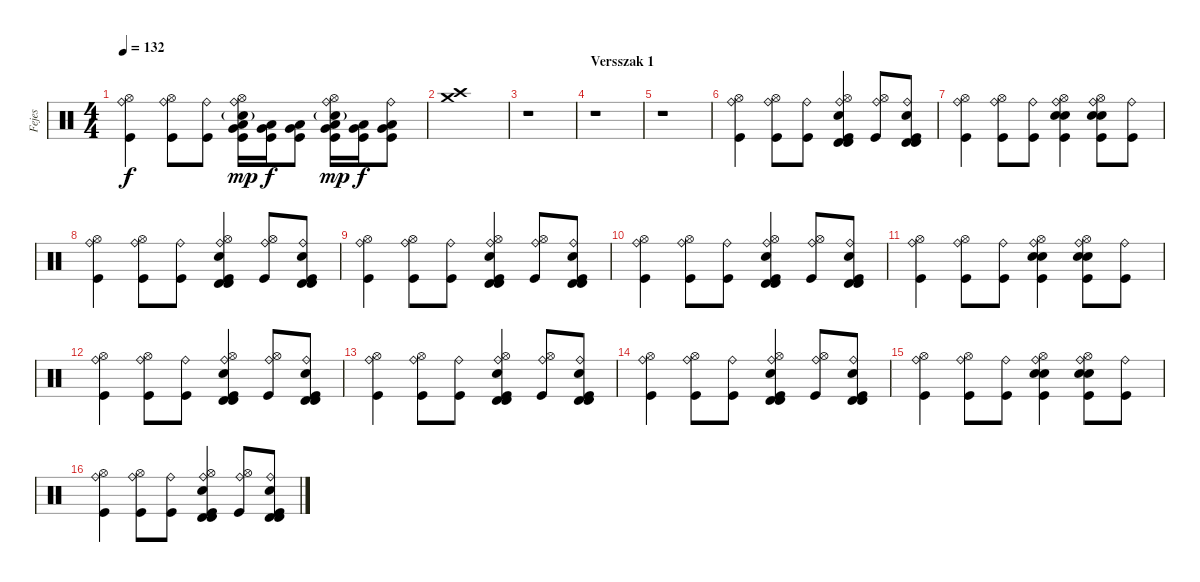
\track ("Fejes" "Fejes") {instrument percussion}
\staff {score}
\articulation defaults
\ts (4 4)
\tempo 132
\clef neutral
\ks c
("Ride (bell)" "Hi-Hat (open)" "Kick (hit)").4{dy f} ("Ride (bell)" "Hi-Hat (open)" "Kick (hit)").8 ("Ride (bell)" "Kick (hit)").8 ("Ride (bell)" "Hi-Hat (open)" "Snare (hit) 2"{g} "Low Floor Tom (hit)" "Very Low Tom (hit)" "Kick (hit)").16{dy mp} ("Low Floor Tom (hit)" "Very Low Tom (hit)" "Kick (hit)").16{dy f} ("Low Floor Tom (hit)" "Very Low Tom (hit)" "Kick (hit)").8 ("Ride (bell)" "Hi-Hat (open)" "Snare (hit) 2"{g} "Low Floor Tom (hit)" "Very Low Tom (hit)" "Kick (hit)").16{dy mp} ("Low Floor Tom (hit)" "Very Low Tom (hit)" "Kick (hit)").16{dy f} ("Ride (bell)" "Low Floor Tom (hit)" "Very Low Tom (hit)" "Kick (hit)").8 |
("Crash high (hit)" "Crash medium (hit)").1 |
r.1 |
\section ("" "Versszak 1")
r.1 |
r.1 |
("Ride (bell)" "Hi-Hat (open)" "Kick (hit)").4 ("Ride (bell)" "Hi-Hat (open)" "Kick (hit)").8 ("Ride (bell)" "Kick (hit)").8 ("Ride (bell)" "Hi-Hat (open)" "Snare (hit) 2" "Timbale high (hit)" "Timbale high (hit)" "Kick (hit)").4 ("Ride (bell)" "Hi-Hat (open)" "Kick (hit)").8 ("Ride (bell)" "Snare (hit) 2" "Timbale high (hit)" "Timbale high (hit)" "Kick (hit)").8 |
("Ride (bell)" "Hi-Hat (open)" "Kick (hit)").4 ("Ride (bell)" "Hi-Hat (open)" "Kick (hit)").8 ("Ride (bell)" "Kick (hit)").8 ("Ride (bell)" "Hi-Hat (open)" "Snare (hit) 2" "Snare (hit) 2" "Kick (hit)").4 ("Ride (bell)" "Hi-Hat (open)" "Snare (hit) 2" "Snare (hit) 2" "Kick (hit)").8 ("Ride (bell)" "Kick (hit)").8 |
("Ride (bell)" "Hi-Hat (open)" "Kick (hit)").4 ("Ride (bell)" "Hi-Hat (open)" "Kick (hit)").8 ("Ride (bell)" "Kick (hit)").8 ("Ride (bell)" "Hi-Hat (open)" "Snare (hit) 2" "Timbale high (hit)" "Timbale high (hit)" "Kick (hit)").4 ("Ride (bell)" "Hi-Hat (open)" "Kick (hit)").8 ("Ride (bell)" "Snare (hit) 2" "Timbale high (hit)" "Timbale high (hit)" "Kick (hit)").8 |
("Ride (bell)" "Hi-Hat (open)" "Kick (hit)").4 ("Ride (bell)" "Hi-Hat (open)" "Kick (hit)").8 ("Ride (bell)" "Kick (hit)").8 ("Ride (bell)" "Hi-Hat (open)" "Snare (hit) 2" "Timbale high (hit)" "Timbale high (hit)" "Kick (hit)").4 ("Ride (bell)" "Hi-Hat (open)" "Kick (hit)").8 ("Ride (bell)" "Snare (hit) 2" "Timbale high (hit)" "Timbale high (hit)" "Kick (hit)").8 |
("Ride (bell)" "Hi-Hat (open)" "Kick (hit)").4 ("Ride (bell)" "Hi-Hat (open)" "Kick (hit)").8 ("Ride (bell)" "Kick (hit)").8 ("Ride (bell)" "Hi-Hat (open)" "Snare (hit) 2" "Timbale high (hit)" "Timbale high (hit)" "Kick (hit)").4 ("Ride (bell)" "Hi-Hat (open)" "Kick (hit)").8 ("Ride (bell)" "Snare (hit) 2" "Timbale high (hit)" "Timbale high (hit)" "Kick (hit)").8 |
("Ride (bell)" "Hi-Hat (open)" "Kick (hit)").4 ("Ride (bell)" "Hi-Hat (open)" "Kick (hit)").8 ("Ride (bell)" "Kick (hit)").8 ("Ride (bell)" "Hi-Hat (open)" "Snare (hit) 2" "Snare (hit) 2" "Kick (hit)").4 ("Ride (bell)" "Hi-Hat (open)" "Snare (hit) 2" "Snare (hit) 2" "Kick (hit)").8 ("Ride (bell)" "Kick (hit)").8 |
("Ride (bell)" "Hi-Hat (open)" "Kick (hit)").4 ("Ride (bell)" "Hi-Hat (open)" "Kick (hit)").8 ("Ride (bell)" "Kick (hit)").8 ("Ride (bell)" "Hi-Hat (open)" "Snare (hit) 2" "Timbale high (hit)" "Timbale high (hit)" "Kick (hit)").4 ("Ride (bell)" "Hi-Hat (open)" "Kick (hit)").8 ("Ride (bell)" "Snare (hit) 2" "Timbale high (hit)" "Timbale high (hit)" "Kick (hit)").8 |
("Ride (bell)" "Hi-Hat (open)" "Kick (hit)").4 ("Ride (bell)" "Hi-Hat (open)" "Kick (hit)").8 ("Ride (bell)" "Kick (hit)").8 ("Ride (bell)" "Hi-Hat (open)" "Snare (hit) 2" "Timbale high (hit)" "Timbale high (hit)" "Kick (hit)").4 ("Ride (bell)" "Hi-Hat (open)" "Kick (hit)").8 ("Ride (bell)" "Snare (hit) 2" "Timbale high (hit)" "Timbale high (hit)" "Kick (hit)").8 |
("Ride (bell)" "Hi-Hat (open)" "Kick (hit)").4 ("Ride (bell)" "Hi-Hat (open)" "Kick (hit)").8 ("Ride (bell)" "Kick (hit)").8 ("Ride (bell)" "Hi-Hat (open)" "Snare (hit) 2" "Timbale high (hit)" "Timbale high (hit)" "Kick (hit)").4 ("Ride (bell)" "Hi-Hat (open)" "Kick (hit)").8 ("Ride (bell)" "Snare (hit) 2" "Timbale high (hit)" "Timbale high (hit)" "Kick (hit)").8 |
("Ride (bell)" "Hi-Hat (open)" "Kick (hit)").4 ("Ride (bell)" "Hi-Hat (open)" "Kick (hit)").8 ("Ride (bell)" "Kick (hit)").8 ("Ride (bell)" "Hi-Hat (open)" "Snare (hit) 2" "Snare (hit) 2" "Kick (hit)").4 ("Ride (bell)" "Hi-Hat (open)" "Snare (hit) 2" "Snare (hit) 2" "Kick (hit)").8 ("Ride (bell)" "Kick (hit)").8 |
("Ride (bell)" "Hi-Hat (open)" "Kick (hit)").4 ("Ride (bell)" "Hi-Hat (open)" "Kick (hit)").8 ("Ride (bell)" "Kick (hit)").8 ("Ride (bell)" "Hi-Hat (open)" "Snare (hit) 2" "Timbale high (hit)" "Timbale high (hit)" "Kick (hit)").4 ("Ride (bell)" "Hi-Hat (open)" "Kick (hit)").8 ("Ride (bell)" "Snare (hit) 2" "Timbale high (hit)" "Timbale high (hit)" "Kick (hit)").8
